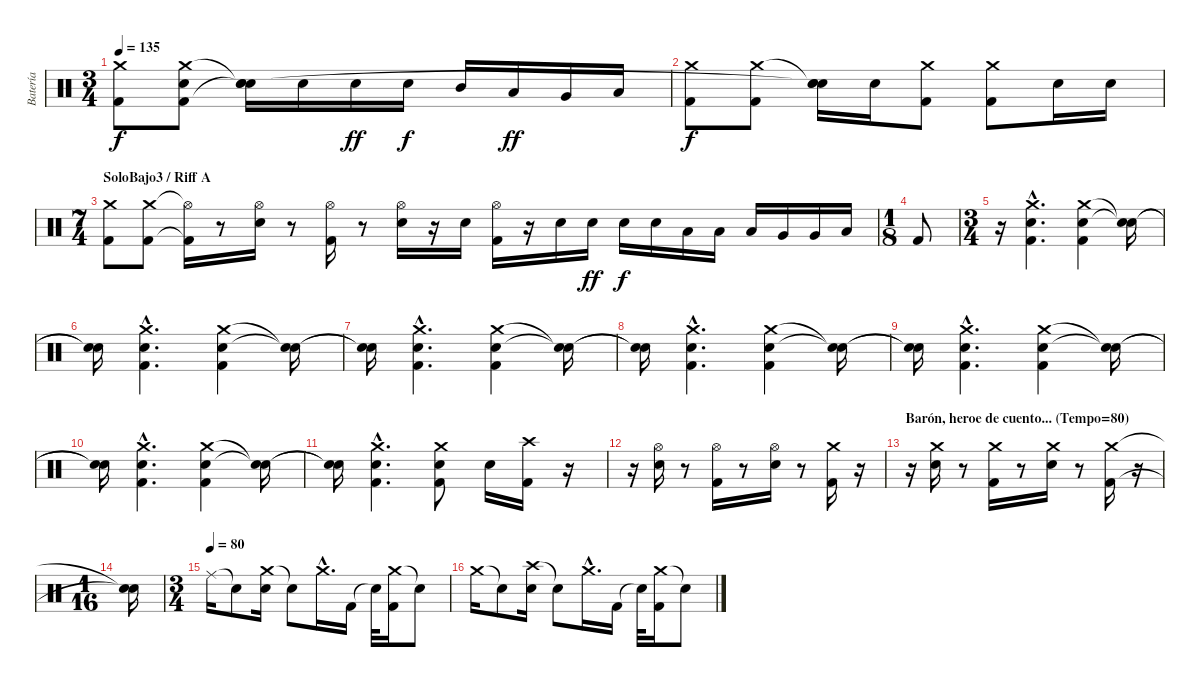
\track ("Batería" "Batería") {instrument percussion}
\staff {score}
\articulation defaults
\ts (3 4)
\tempo 135
\clef neutral
\ks c
("Crash medium (hit)" "Kick (hit) 2").8{dy f} ("Crash medium (hit)" "Snare (hit) 2" "Kick (hit) 2").8 ("Snare (hit)"{t} "Snare (hit) 2" "Snare (hit)"{t}).16 "Snare (hit) 2".16 "Snare (hit) 2".16{dy ff} "Snare (hit) 2".16{dy f} "Mid Tom (hit)".16 "Low Tom (hit)".16{dy ff} "Very Low Tom (hit)".16 "Low Floor Tom (hit)".16 |
("Crash medium (hit)" "Kick (hit) 2").8{dy f} ("Crash medium (hit)" "Kick (hit) 2").8 ("Snare (hit)"{t} "Snare (hit) 2" "Snare (hit)"{t}).16 "Snare (hit) 2".16 ("Crash medium (hit)" "Kick (hit) 2").8 ("Crash medium (hit)" "Kick (hit) 2").8 "Snare (hit) 2".16 "Snare (hit) 2".16 |
\ts (7 4)
\section ("" "SoloBajo3 / Riff A")
("Crash medium (hit)" "Kick (hit) 2").8 ("Crash medium (hit)" "Kick (hit) 2").8 ("Hi-Hat (open)"{t} "Kick (hit) 2"{t}).16 r.8 ("Hi-Hat (open)" "Snare (hit) 2").16 r.8 ("Hi-Hat (open)" "Kick (hit) 2").16 r.8 ("Hi-Hat (open)" "Snare (hit) 2").16 r.16 "Snare (hit) 2".16 ("Hi-Hat (open)" "Kick (hit) 2").16 r.16 "Snare (hit) 2".16 "Snare (hit) 2".16{dy ff} "Snare (hit) 2".16{dy f} "Snare (hit) 2".16 "Low Tom (hit)".16 "Low Tom (hit)".16 "Low Tom (hit)".16 "Very Low Tom (hit)".16 "Very Low Tom (hit)".16 "Low Floor Tom (hit)".16 |
\ts (1 8)
"Kick (hit) 2".8 |
\ts (3 4)
r.16 ("Crash medium (hit)"{hac} "Snare (hit) 2"{hac} "Kick (hit) 2"{hac}).4{d} ("Crash medium (hit)" "Snare (hit) 2" "Kick (hit) 2").4 ("Snare (hit)"{t} "Snare (hit)"{t}).16 |
("Snare (hit)"{t} "Snare (hit)"{t}).16 ("Crash medium (hit)"{hac} "Snare (hit) 2"{hac} "Kick (hit) 2"{hac}).4{d} ("Crash medium (hit)" "Snare (hit) 2" "Kick (hit) 2").4 ("Snare (hit)"{t} "Snare (hit)"{t}).16 |
("Snare (hit)"{t} "Snare (hit)"{t}).16 ("Crash medium (hit)"{hac} "Snare (hit) 2"{hac} "Kick (hit) 2"{hac}).4{d} ("Crash medium (hit)" "Snare (hit) 2" "Kick (hit) 2").4 ("Snare (hit)"{t} "Snare (hit)"{t}).16 |
("Snare (hit)"{t} "Snare (hit)"{t}).16 ("Crash medium (hit)"{hac} "Snare (hit) 2"{hac} "Kick (hit) 2"{hac}).4{d} ("Crash medium (hit)" "Snare (hit) 2" "Kick (hit) 2").4 ("Snare (hit)"{t} "Snare (hit)"{t}).16 |
("Snare (hit)"{t} "Snare (hit)"{t}).16 ("Crash medium (hit)"{hac} "Snare (hit) 2"{hac} "Kick (hit) 2"{hac}).4{d} ("Crash medium (hit)" "Snare (hit) 2" "Kick (hit) 2").4 ("Snare (hit)"{t} "Snare (hit)"{t}).16 |
("Snare (hit)"{t} "Snare (hit)"{t}).16 ("Crash medium (hit)"{hac} "Snare (hit) 2"{hac} "Kick (hit) 2"{hac}).4{d} ("Crash medium (hit)" "Snare (hit) 2" "Kick (hit) 2").4 ("Snare (hit)"{t} "Snare (hit)"{t}).16 |
("Snare (hit)"{t} "Snare (hit)"{t}).16 ("Crash medium (hit)"{hac} "Snare (hit) 2"{hac} "Kick (hit) 2"{hac}).4{d} ("Crash medium (hit)" "Snare (hit) 2" "Kick (hit) 2").8 "Snare (hit) 2".16 ("Crash high (hit)" "Kick (hit) 2").16 r.16 |
r.16 ("Hi-Hat (open)" "Snare (hit) 2").16 r.8 ("Hi-Hat (open)" "Kick (hit) 2").16 r.8 ("Hi-Hat (open)" "Snare (hit) 2").16 r.8 ("Crash medium (hit)" "Kick (hit) 2").16 r.16 |
\section ("" "Barón, heroe de cuento... (Tempo=80)")
r.16 ("Crash medium (hit)" "Snare (hit) 2").16 r.8 ("Crash medium (hit)" "Kick (hit) 2").16 r.8 ("Crash medium (hit)" "Snare (hit) 2").16 r.8 ("Crash medium (hit)" "Kick (hit) 2").16 r.16 |
\ts (1 16)
("Snare (hit)"{t} "Snare (hit)"{t}).16 |
\ts (3 4)
\tempo (80)
"Ride (middle)".16 "Snare (hit)"{t}.8 ("Crash medium (hit)" "Snare (hit) 2").16 "Snare (hit)"{t}.8 "Crash medium (hit)"{hac}.16{d} "Kick (hit) 2".16 "Snare (hit)"{t}.32 ("Crash medium (hit)" "Kick (hit) 2").16 "Snare (hit)"{t}.8 |
"Crash medium (hit)".16 "Snare (hit)"{t}.8 ("Crash high (hit)" "Snare (hit) 2").16 "Snare (hit)"{t}.8 "Crash medium (hit)"{hac}.16{d} "Kick (hit) 2".16 "Snare (hit)"{t}.32 ("Crash medium (hit)" "Kick (hit) 2").16 "Snare (hit)"{t}.8
